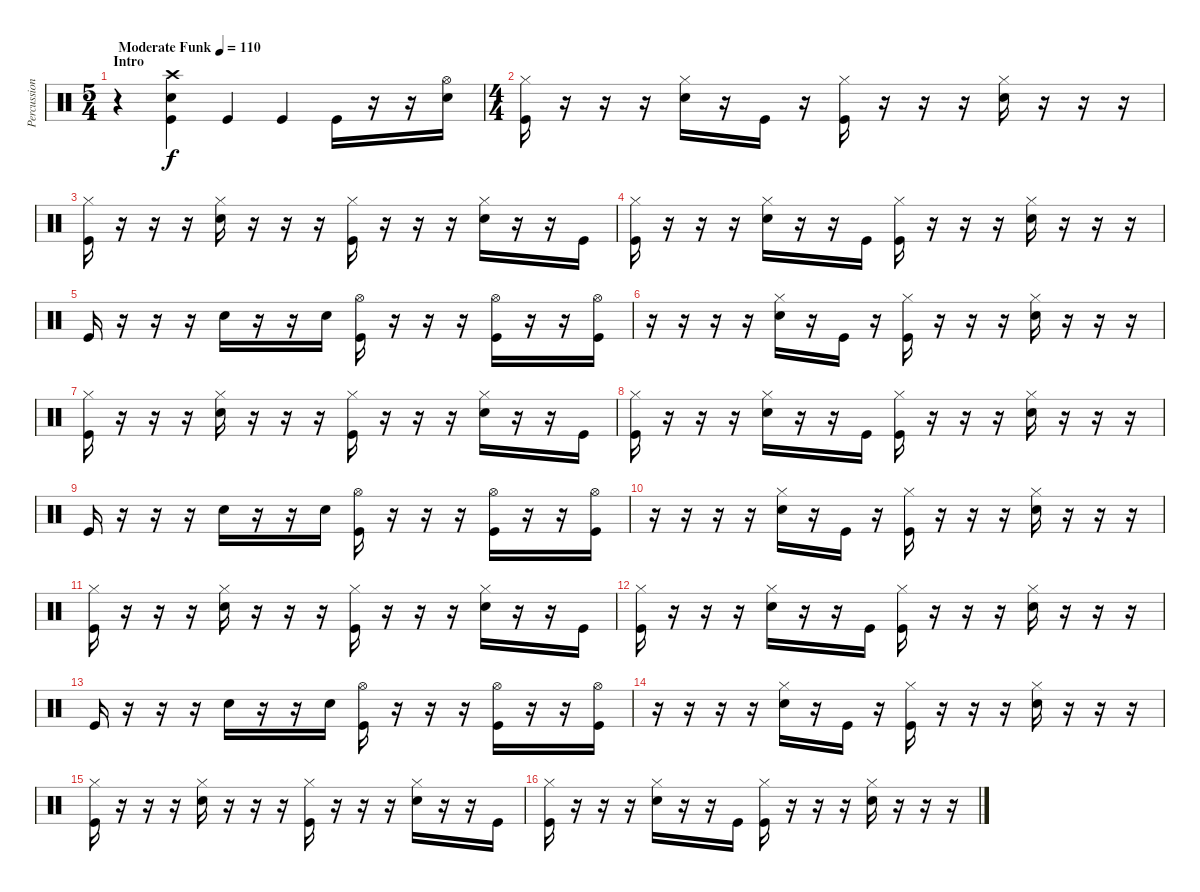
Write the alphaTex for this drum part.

\track ("Percussion" "Percussion") {instrument percussion}
\staff {score}
\articulation defaults
\ts (5 4)
\section ("" "Intro")
\tempo (110 "Moderate Funk")
\clef neutral
\ks c
r.4{dy f} ("Crash high (hit)" "Snare (hit) 2" "Kick (hit)").4 "Kick (hit)".4 "Kick (hit)".4 "Kick (hit)".16 r.16 r.16 ("Hi-Hat (open)" "Snare (hit) 2").16 |
\ts (4 4)
("Hi-Hat (closed)" "Kick (hit)").16 r.16 r.16 r.16 ("Hi-Hat (closed)" "Snare (hit) 2").16 r.16 "Kick (hit)".16 r.16 ("Hi-Hat (closed)" "Kick (hit)").16 r.16 r.16 r.16 ("Hi-Hat (closed)" "Snare (hit) 2").16 r.16 r.16 r.16 |
("Hi-Hat (closed)" "Kick (hit)").16 r.16 r.16 r.16 ("Hi-Hat (closed)" "Snare (hit) 2").16 r.16 r.16 r.16 ("Hi-Hat (closed)" "Kick (hit)").16 r.16 r.16 r.16 ("Hi-Hat (closed)" "Snare (hit) 2").16 r.16 r.16 "Kick (hit)".16 |
("Hi-Hat (closed)" "Kick (hit)").16 r.16 r.16 r.16 ("Hi-Hat (closed)" "Snare (hit) 2").16 r.16 r.16 "Kick (hit)".16 ("Hi-Hat (closed)" "Kick (hit)").16 r.16 r.16 r.16 ("Hi-Hat (closed)" "Snare (hit) 2").16 r.16 r.16 r.16 |
"Kick (hit)".16 r.16 r.16 r.16 "Snare (hit) 2".16 r.16 r.16 "Snare (hit) 2".16 ("Hi-Hat (open)" "Kick (hit)").16 r.16 r.16 r.16 ("Hi-Hat (open)" "Kick (hit)").16 r.16 r.16 ("Hi-Hat (open)" "Kick (hit)").16 |
r.16 r.16 r.16 r.16 ("Hi-Hat (closed)" "Snare (hit) 2").16 r.16 "Kick (hit)".16 r.16 ("Hi-Hat (closed)" "Kick (hit)").16 r.16 r.16 r.16 ("Hi-Hat (closed)" "Snare (hit) 2").16 r.16 r.16 r.16 |
("Hi-Hat (closed)" "Kick (hit)").16 r.16 r.16 r.16 ("Hi-Hat (closed)" "Snare (hit) 2").16 r.16 r.16 r.16 ("Hi-Hat (closed)" "Kick (hit)").16 r.16 r.16 r.16 ("Hi-Hat (closed)" "Snare (hit) 2").16 r.16 r.16 "Kick (hit)".16 |
("Hi-Hat (closed)" "Kick (hit)").16 r.16 r.16 r.16 ("Hi-Hat (closed)" "Snare (hit) 2").16 r.16 r.16 "Kick (hit)".16 ("Hi-Hat (closed)" "Kick (hit)").16 r.16 r.16 r.16 ("Hi-Hat (closed)" "Snare (hit) 2").16 r.16 r.16 r.16 |
"Kick (hit)".16 r.16 r.16 r.16 "Snare (hit) 2".16 r.16 r.16 "Snare (hit) 2".16 ("Hi-Hat (open)" "Kick (hit)").16 r.16 r.16 r.16 ("Hi-Hat (open)" "Kick (hit)").16 r.16 r.16 ("Hi-Hat (open)" "Kick (hit)").16 |
r.16 r.16 r.16 r.16 ("Hi-Hat (closed)" "Snare (hit) 2").16 r.16 "Kick (hit)".16 r.16 ("Hi-Hat (closed)" "Kick (hit)").16 r.16 r.16 r.16 ("Hi-Hat (closed)" "Snare (hit) 2").16 r.16 r.16 r.16 |
("Hi-Hat (closed)" "Kick (hit)").16 r.16 r.16 r.16 ("Hi-Hat (closed)" "Snare (hit) 2").16 r.16 r.16 r.16 ("Hi-Hat (closed)" "Kick (hit)").16 r.16 r.16 r.16 ("Hi-Hat (closed)" "Snare (hit) 2").16 r.16 r.16 "Kick (hit)".16 |
("Hi-Hat (closed)" "Kick (hit)").16 r.16 r.16 r.16 ("Hi-Hat (closed)" "Snare (hit) 2").16 r.16 r.16 "Kick (hit)".16 ("Hi-Hat (closed)" "Kick (hit)").16 r.16 r.16 r.16 ("Hi-Hat (closed)" "Snare (hit) 2").16 r.16 r.16 r.16 |
"Kick (hit)".16 r.16 r.16 r.16 "Snare (hit) 2".16 r.16 r.16 "Snare (hit) 2".16 ("Hi-Hat (open)" "Kick (hit)").16 r.16 r.16 r.16 ("Hi-Hat (open)" "Kick (hit)").16 r.16 r.16 ("Hi-Hat (open)" "Kick (hit)").16 |
r.16 r.16 r.16 r.16 ("Hi-Hat (closed)" "Snare (hit) 2").16 r.16 "Kick (hit)".16 r.16 ("Hi-Hat (closed)" "Kick (hit)").16 r.16 r.16 r.16 ("Hi-Hat (closed)" "Snare (hit) 2").16 r.16 r.16 r.16 |
("Hi-Hat (closed)" "Kick (hit)").16 r.16 r.16 r.16 ("Hi-Hat (closed)" "Snare (hit) 2").16 r.16 r.16 r.16 ("Hi-Hat (closed)" "Kick (hit)").16 r.16 r.16 r.16 ("Hi-Hat (closed)" "Snare (hit) 2").16 r.16 r.16 "Kick (hit)".16 |
("Hi-Hat (closed)" "Kick (hit)").16 r.16 r.16 r.16 ("Hi-Hat (closed)" "Snare (hit) 2").16 r.16 r.16 "Kick (hit)".16 ("Hi-Hat (closed)" "Kick (hit)").16 r.16 r.16 r.16 ("Hi-Hat (closed)" "Snare (hit) 2").16 r.16 r.16 r.16
